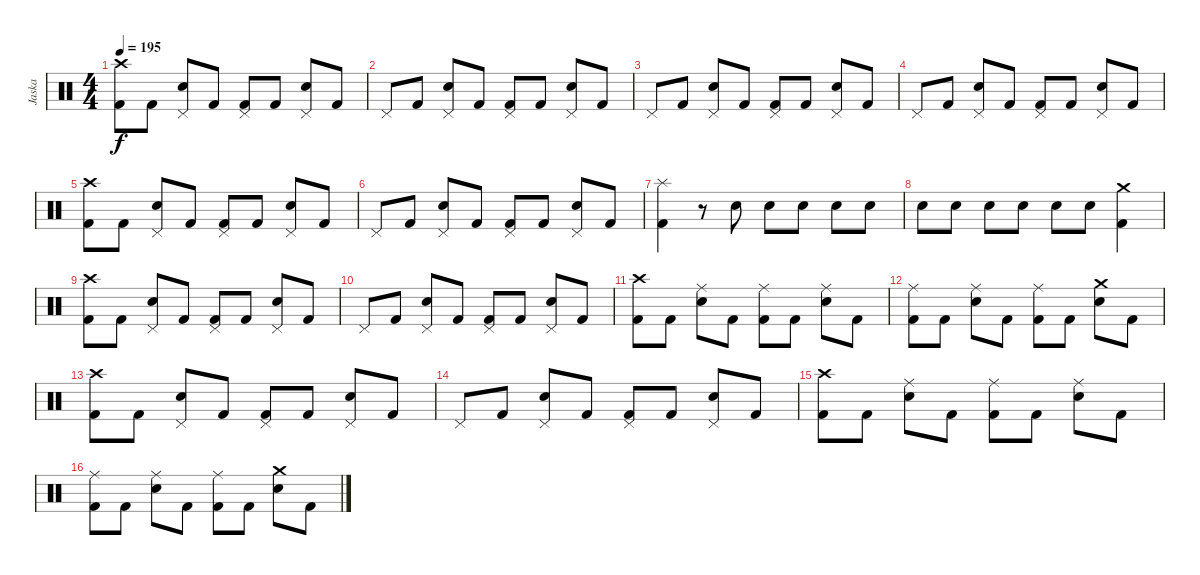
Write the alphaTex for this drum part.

\track ("Jaska" "Jaska") {instrument percussion}
\staff {score}
\articulation defaults
\ts (4 4)
\tempo 195
\clef neutral
\ks c
("Crash high (hit)" "Kick (hit) 2").8{dy f} "Kick (hit) 2".8 ("Pedal Hi-Hat (hit)" "Electric Snare (hit)").8 "Kick (hit) 2".8 ("Pedal Hi-Hat (hit)" "Kick (hit) 2").8 "Kick (hit) 2".8 ("Pedal Hi-Hat (hit)" "Electric Snare (hit)").8 "Kick (hit) 2".8 |
"Pedal Hi-Hat (hit)".8 "Kick (hit) 2".8 ("Pedal Hi-Hat (hit)" "Electric Snare (hit)").8 "Kick (hit) 2".8 ("Pedal Hi-Hat (hit)" "Kick (hit) 2").8 "Kick (hit) 2".8 ("Pedal Hi-Hat (hit)" "Electric Snare (hit)").8 "Kick (hit) 2".8 |
"Pedal Hi-Hat (hit)".8 "Kick (hit) 2".8 ("Pedal Hi-Hat (hit)" "Electric Snare (hit)").8 "Kick (hit) 2".8 ("Pedal Hi-Hat (hit)" "Kick (hit) 2").8 "Kick (hit) 2".8 ("Pedal Hi-Hat (hit)" "Electric Snare (hit)").8 "Kick (hit) 2".8 |
"Pedal Hi-Hat (hit)".8 "Kick (hit) 2".8 ("Pedal Hi-Hat (hit)" "Electric Snare (hit)").8 "Kick (hit) 2".8 ("Pedal Hi-Hat (hit)" "Kick (hit) 2").8 "Kick (hit) 2".8 ("Pedal Hi-Hat (hit)" "Electric Snare (hit)").8 "Kick (hit) 2".8 |
("Crash high (hit)" "Kick (hit) 2").8 "Kick (hit) 2".8 ("Pedal Hi-Hat (hit)" "Electric Snare (hit)").8 "Kick (hit) 2".8 ("Pedal Hi-Hat (hit)" "Kick (hit) 2").8 "Kick (hit) 2".8 ("Pedal Hi-Hat (hit)" "Electric Snare (hit)").8 "Kick (hit) 2".8 |
"Pedal Hi-Hat (hit)".8 "Kick (hit) 2".8 ("Pedal Hi-Hat (hit)" "Electric Snare (hit)").8 "Kick (hit) 2".8 ("Pedal Hi-Hat (hit)" "Kick (hit) 2").8 "Kick (hit) 2".8 ("Pedal Hi-Hat (hit)" "Electric Snare (hit)").8 "Kick (hit) 2".8 |
("Splash (hit)" "Kick (hit) 2").4 r.8 "Electric Snare (hit)".8 "Electric Snare (hit)".8 "Electric Snare (hit)".8 "Electric Snare (hit)".8 "Electric Snare (hit)".8 |
"Electric Snare (hit)".8 "Electric Snare (hit)".8 "Electric Snare (hit)".8 "Electric Snare (hit)".8 "Electric Snare (hit)".8 "Electric Snare (hit)".8 ("Crash medium (hit)" "Kick (hit) 2").4 |
("Crash high (hit)" "Kick (hit) 2").8 "Kick (hit) 2".8 ("Pedal Hi-Hat (hit)" "Electric Snare (hit)").8 "Kick (hit) 2".8 ("Pedal Hi-Hat (hit)" "Kick (hit) 2").8 "Kick (hit) 2".8 ("Pedal Hi-Hat (hit)" "Electric Snare (hit)").8 "Kick (hit) 2".8 |
"Pedal Hi-Hat (hit)".8 "Kick (hit) 2".8 ("Pedal Hi-Hat (hit)" "Electric Snare (hit)").8 "Kick (hit) 2".8 ("Pedal Hi-Hat (hit)" "Kick (hit) 2").8 "Kick (hit) 2".8 ("Pedal Hi-Hat (hit)" "Electric Snare (hit)").8 "Kick (hit) 2".8 |
("Crash high (hit)" "Kick (hit) 2").8 "Kick (hit) 2".8 ("Ride (middle)" "Electric Snare (hit)").8 "Kick (hit) 2".8 ("Ride (middle)" "Kick (hit) 2").8 "Kick (hit) 2".8 ("Ride (middle)" "Electric Snare (hit)").8 "Kick (hit) 2".8 |
("Ride (middle)" "Kick (hit) 2").8 "Kick (hit) 2".8 ("Ride (middle)" "Electric Snare (hit)").8 "Kick (hit) 2".8 ("Ride (middle)" "Kick (hit) 2").8 "Kick (hit) 2".8 ("Crash medium (hit)" "Electric Snare (hit)").8 "Kick (hit) 2".8 |
("Crash high (hit)" "Kick (hit) 2").8 "Kick (hit) 2".8 ("Pedal Hi-Hat (hit)" "Electric Snare (hit)").8 "Kick (hit) 2".8 ("Pedal Hi-Hat (hit)" "Kick (hit) 2").8 "Kick (hit) 2".8 ("Pedal Hi-Hat (hit)" "Electric Snare (hit)").8 "Kick (hit) 2".8 |
"Pedal Hi-Hat (hit)".8 "Kick (hit) 2".8 ("Pedal Hi-Hat (hit)" "Electric Snare (hit)").8 "Kick (hit) 2".8 ("Pedal Hi-Hat (hit)" "Kick (hit) 2").8 "Kick (hit) 2".8 ("Pedal Hi-Hat (hit)" "Electric Snare (hit)").8 "Kick (hit) 2".8 |
("Crash high (hit)" "Kick (hit) 2").8 "Kick (hit) 2".8 ("Ride (middle)" "Electric Snare (hit)").8 "Kick (hit) 2".8 ("Ride (middle)" "Kick (hit) 2").8 "Kick (hit) 2".8 ("Ride (middle)" "Electric Snare (hit)").8 "Kick (hit) 2".8 |
("Ride (middle)" "Kick (hit) 2").8 "Kick (hit) 2".8 ("Ride (middle)" "Electric Snare (hit)").8 "Kick (hit) 2".8 ("Ride (middle)" "Kick (hit) 2").8 "Kick (hit) 2".8 ("Crash medium (hit)" "Electric Snare (hit)").8 "Kick (hit) 2".8
